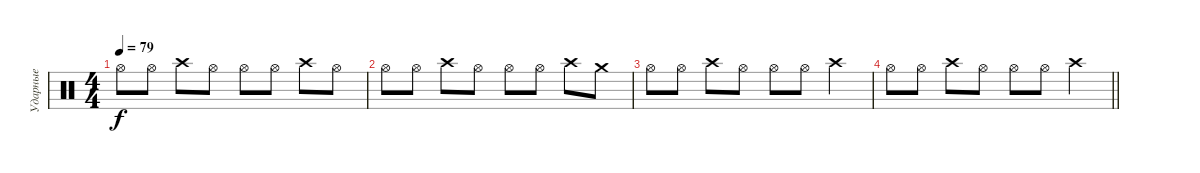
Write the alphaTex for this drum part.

\track ("Ударные" "Ударные") {instrument percussion}
\staff {score}
\articulation defaults
\ts (4 4)
\tempo 79
\clef neutral
\ks c "Hi-Hat (open)".8{dy f} "Hi-Hat (open)".8 "Crash high (hit)".8 "Hi-Hat (open)".8 "Hi-Hat (open)".8 "Hi-Hat (open)".8 "Crash high (hit)".8 "Hi-Hat (open)".8
|
"Hi-Hat (open)".8 "Hi-Hat (open)".8 "Crash high (hit)".8 "Hi-Hat (open)".8 "Hi-Hat (open)".8 "Hi-Hat (open)".8 "Crash high (hit)".8 "Crash medium (hit)".8 |
"Hi-Hat (open)".8 "Hi-Hat (open)".8 "Crash high (hit)".8 "Hi-Hat (open)".8 "Hi-Hat (open)".8 "Hi-Hat (open)".8 "Crash high (hit)".4 |
\barLineRight lightlight "Hi-Hat (open)".8 "Hi-Hat (open)".8 "Crash high (hit)".8 "Hi-Hat (open)".8 "Hi-Hat (open)".8 "Hi-Hat (open)".8 "Crash high (hit)".4
